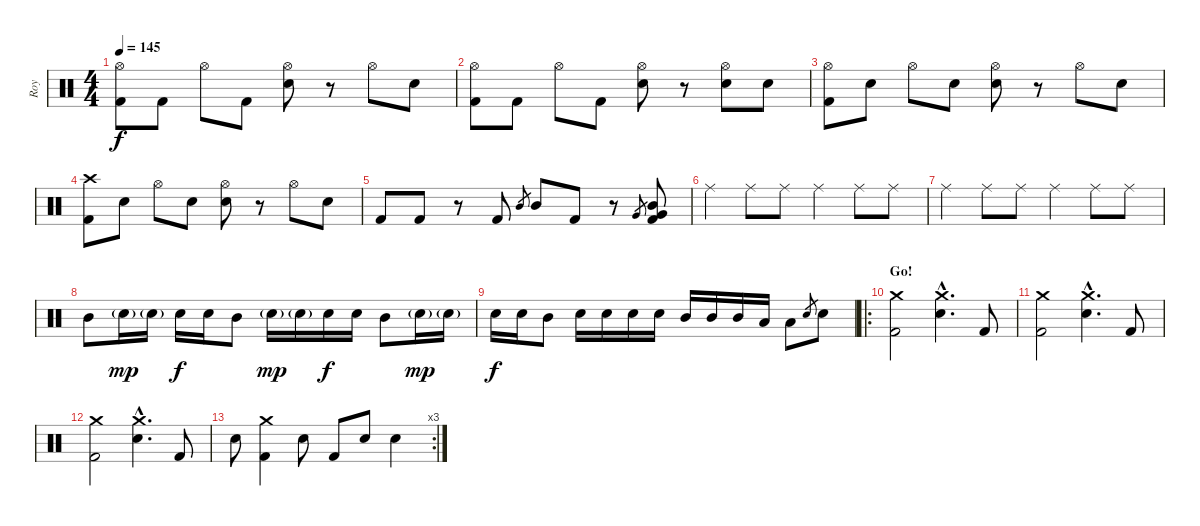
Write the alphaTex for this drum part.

\track ("Roy" "Roy") {instrument percussion}
\staff {score}
\articulation defaults
\ts (4 4)
\tempo 145
\clef neutral
\ks c
("Hi-Hat (open)" "Kick (hit) 2").8{dy f} "Kick (hit) 2".8 "Hi-Hat (open)".8 "Kick (hit) 2".8 ("Hi-Hat (open)" "Electric Snare (hit)").8 r.8 "Hi-Hat (open)".8 "Electric Snare (hit)".8 |
("Hi-Hat (open)" "Kick (hit) 2").8 "Kick (hit) 2".8 "Hi-Hat (open)".8 "Kick (hit) 2".8 ("Hi-Hat (open)" "Electric Snare (hit)").8 r.8 ("Hi-Hat (open)" "Electric Snare (hit)").8 "Electric Snare (hit)".8 |
("Hi-Hat (open)" "Kick (hit) 2").8 "Electric Snare (hit)".8 "Hi-Hat (open)".8 "Electric Snare (hit)".8 ("Hi-Hat (open)" "Electric Snare (hit)").8 r.8 "Hi-Hat (open)".8 "Electric Snare (hit)".8 |
("Crash high (hit)" "Kick (hit) 2").8 "Electric Snare (hit)".8 "Hi-Hat (open)".8 "Electric Snare (hit)".8 ("Hi-Hat (open)" "Electric Snare (hit)").8 r.8 "Hi-Hat (open)".8 "Electric Snare (hit)".8 |
"Kick (hit) 2".8 "Kick (hit) 2".8 r.8 "Kick (hit) 2".8 "Mid Tom (hit)".8{gr} "Mid Tom (hit)".8 "Kick (hit) 2".8 r.8 "Very Low Tom (hit)".8{gr} ("Very Low Tom (hit)" "Mid Tom (hit)" "Kick (hit) 2").8 |
"Ride (middle)".4 "Ride (middle)".8 "Ride (middle)".8 "Ride (middle)".4 "Ride (middle)".8 "Ride (middle)".8 |
"Ride (middle)".4 "Ride (middle)".8 "Ride (middle)".8 "Ride (middle)".4 "Ride (middle)".8 "Ride (middle)".8 |
"Mid Tom (hit)".8 "Electric Snare (hit)"{g}.16{dy mp} "Electric Snare (hit)"{g}.16 "Electric Snare (hit)".16{dy f} "Electric Snare (hit)".16 "Mid Tom (hit)".8 "Electric Snare (hit)"{g}.16{dy mp} "Electric Snare (hit)"{g}.16 "Electric Snare (hit)".16{dy f} "Electric Snare (hit)".16 "Mid Tom (hit)".8 "Electric Snare (hit)"{g}.16{dy mp} "Electric Snare (hit)"{g}.16 |
"Electric Snare (hit)".16{dy f} "Electric Snare (hit)".16 "Mid Tom (hit)".8 "Electric Snare (hit)".16 "Electric Snare (hit)".16 "Electric Snare (hit)".16 "Electric Snare (hit)".16 "Mid Tom (hit)".16 "Mid Tom (hit)".16 "Mid Tom (hit)".16 "Low Tom (hit)".16 "Low Tom (hit)".8 "Electric Snare (hit)".8{gr} "Electric Snare (hit)".8 |
\ro
\section ("" "Go!")
("Crash medium (hit)" "Kick (hit) 2").2 ("Crash medium (hit)"{hac} "Electric Snare (hit)"{hac}).4{d} "Kick (hit) 2".8 |
("Crash medium (hit)" "Kick (hit) 2").2 ("Crash medium (hit)"{hac} "Electric Snare (hit)"{hac}).4{d} "Kick (hit) 2".8 |
("Crash medium (hit)" "Kick (hit) 2").2 ("Crash medium (hit)"{hac} "Electric Snare (hit)"{hac}).4{d} "Kick (hit) 2".8 |
\rc 3 "Electric Snare (hit)".8
("Crash medium (hit)" "Kick (hit) 2").4 "Electric Snare (hit)".8 "Kick (hit) 2".8 "Electric Snare (hit)".8 "Electric Snare (hit)".4
